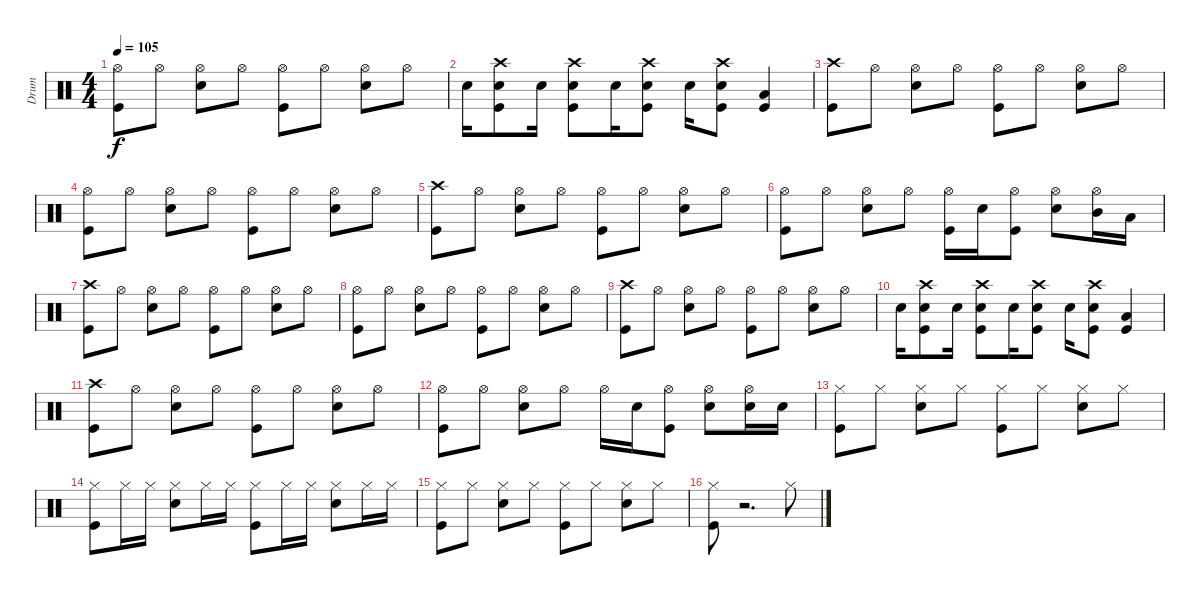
\track ("Drum" "Drum") {instrument percussion}
\staff {score}
\articulation defaults
\ts (4 4)
\tempo 105
\clef neutral
\ks c
("Hi-Hat (open)" "Kick (hit)").8{dy f} "Hi-Hat (open)".8 ("Hi-Hat (open)" "Snare (hit) 2").8 "Hi-Hat (open)".8 ("Hi-Hat (open)" "Kick (hit)").8 "Hi-Hat (open)".8 ("Hi-Hat (open)" "Snare (hit) 2").8 "Hi-Hat (open)".8 |
"Snare (hit) 2".16 ("Crash high (hit)" "Snare (hit) 2" "Kick (hit)").8 "Snare (hit) 2".16 ("Crash high (hit)" "Snare (hit) 2" "Kick (hit)").8 "Snare (hit) 2".16 ("Crash high (hit)" "Snare (hit) 2" "Kick (hit)").8 "Snare (hit) 2".16 ("Crash high (hit)" "Snare (hit) 2" "Kick (hit)").8 ("Low Floor Tom (hit)" "Kick (hit)").4 |
("Crash high (hit)" "Kick (hit)").8 "Hi-Hat (open)".8 ("Hi-Hat (open)" "Snare (hit) 2").8 "Hi-Hat (open)".8 ("Hi-Hat (open)" "Kick (hit)").8 "Hi-Hat (open)".8 ("Hi-Hat (open)" "Snare (hit) 2").8 "Hi-Hat (open)".8 |
("Hi-Hat (open)" "Kick (hit)").8 "Hi-Hat (open)".8 ("Hi-Hat (open)" "Snare (hit) 2").8 "Hi-Hat (open)".8 ("Hi-Hat (open)" "Kick (hit)").8 "Hi-Hat (open)".8 ("Hi-Hat (open)" "Snare (hit) 2").8 "Hi-Hat (open)".8 |
("Crash high (hit)" "Kick (hit)").8 "Hi-Hat (open)".8 ("Hi-Hat (open)" "Snare (hit) 2").8 "Hi-Hat (open)".8 ("Hi-Hat (open)" "Kick (hit)").8 "Hi-Hat (open)".8 ("Hi-Hat (open)" "Snare (hit) 2").8 "Hi-Hat (open)".8 |
("Hi-Hat (open)" "Kick (hit)").8 "Hi-Hat (open)".8 ("Hi-Hat (open)" "Snare (hit) 2").8 "Hi-Hat (open)".8 ("Hi-Hat (open)" "Kick (hit)").16 "Snare (hit) 2".16 ("Hi-Hat (open)" "Kick (hit)").8 ("Hi-Hat (open)" "Snare (hit) 2").8 ("Hi-Hat (open)" "Mid Tom (hit)").16 "Low Tom (hit)".16 |
("Crash high (hit)" "Kick (hit)").8 "Hi-Hat (open)".8 ("Hi-Hat (open)" "Snare (hit) 2").8 "Hi-Hat (open)".8 ("Hi-Hat (open)" "Kick (hit)").8 "Hi-Hat (open)".8 ("Hi-Hat (open)" "Snare (hit) 2").8 "Hi-Hat (open)".8 |
("Hi-Hat (open)" "Kick (hit)").8 "Hi-Hat (open)".8 ("Hi-Hat (open)" "Snare (hit) 2").8 "Hi-Hat (open)".8 ("Hi-Hat (open)" "Kick (hit)").8 "Hi-Hat (open)".8 ("Hi-Hat (open)" "Snare (hit) 2").8 "Hi-Hat (open)".8 |
("Crash high (hit)" "Kick (hit)").8 "Hi-Hat (open)".8 ("Hi-Hat (open)" "Snare (hit) 2").8 "Hi-Hat (open)".8 ("Hi-Hat (open)" "Kick (hit)").8 "Hi-Hat (open)".8 ("Hi-Hat (open)" "Snare (hit) 2").8 "Hi-Hat (open)".8 |
"Snare (hit) 2".16 ("Crash high (hit)" "Snare (hit) 2" "Kick (hit)").8 "Snare (hit) 2".16 ("Crash high (hit)" "Snare (hit) 2" "Kick (hit)").8 "Snare (hit) 2".16 ("Crash high (hit)" "Snare (hit) 2" "Kick (hit)").8 "Snare (hit) 2".16 ("Crash high (hit)" "Snare (hit) 2" "Kick (hit)").8 ("Low Floor Tom (hit)" "Kick (hit)").4 |
("Crash high (hit)" "Kick (hit)").8 "Hi-Hat (open)".8 ("Hi-Hat (open)" "Snare (hit) 2").8 "Hi-Hat (open)".8 ("Hi-Hat (open)" "Kick (hit)").8 "Hi-Hat (open)".8 ("Hi-Hat (open)" "Snare (hit) 2").8 "Hi-Hat (open)".8 |
("Hi-Hat (open)" "Kick (hit)").8 "Hi-Hat (open)".8 ("Hi-Hat (open)" "Snare (hit) 2").8 "Hi-Hat (open)".8 "Hi-Hat (open)".16 "Snare (hit) 2".16 ("Hi-Hat (open)" "Kick (hit)").8 ("Hi-Hat (open)" "Snare (hit) 2").8 ("Hi-Hat (open)" "Snare (hit) 2").16 "Snare (hit) 2".16 |
("Hi-Hat (closed)" "Kick (hit)").8 "Hi-Hat (closed)".8 ("Hi-Hat (closed)" "Snare (hit) 2").8 "Hi-Hat (closed)".8 ("Hi-Hat (closed)" "Kick (hit)").8 "Hi-Hat (closed)".8 ("Hi-Hat (closed)" "Snare (hit) 2").8 "Hi-Hat (closed)".8 |
("Hi-Hat (closed)" "Kick (hit)").8 "Hi-Hat (closed)".16 "Hi-Hat (closed)".16 ("Hi-Hat (closed)" "Snare (hit) 2").8 "Hi-Hat (closed)".16 "Hi-Hat (closed)".16 ("Hi-Hat (closed)" "Kick (hit)").8 "Hi-Hat (closed)".16 "Hi-Hat (closed)".16 ("Hi-Hat (closed)" "Snare (hit) 2").8 "Hi-Hat (closed)".16 "Hi-Hat (closed)".16 |
("Hi-Hat (closed)" "Kick (hit)").8 "Hi-Hat (closed)".8 ("Hi-Hat (closed)" "Snare (hit) 2").8 "Hi-Hat (closed)".8 ("Hi-Hat (closed)" "Kick (hit)").8 "Hi-Hat (closed)".8 ("Hi-Hat (closed)" "Snare (hit) 2").8 "Hi-Hat (closed)".8 |
("Hi-Hat (closed)" "Kick (hit)").8 r.2{d} "Hi-Hat (closed)".8
